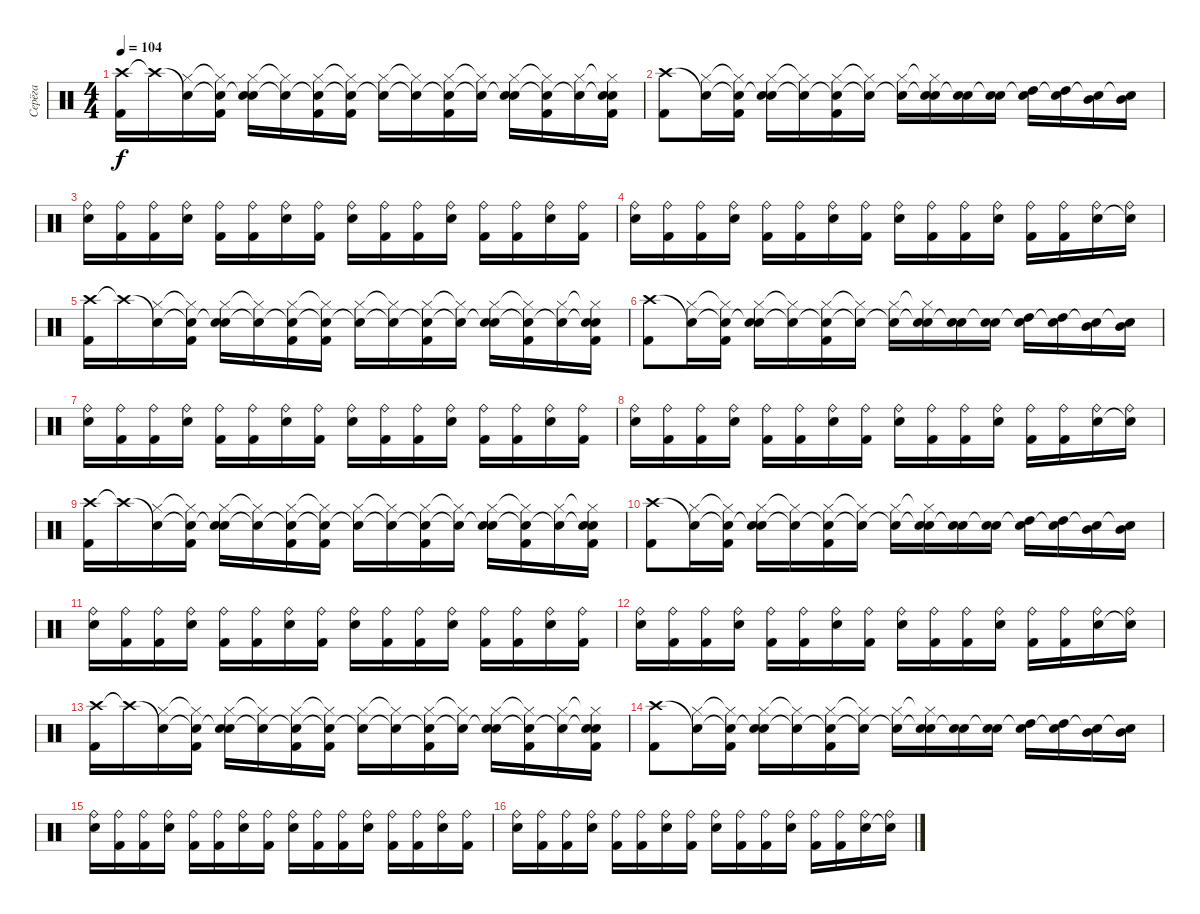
\track ("Серёга" "Серёга") {instrument percussion}
\staff {score}
\articulation defaults
\ts (4 4)
\tempo 104
\clef neutral
\ks c
("Crash high (hit)" "Kick (hit) 2").16{dy f} "Crash high (hit)"{t}.16 ("Snare (hit)"{t} "Hi-Hat (closed)").16 ("Snare (hit)"{t} "Hi-Hat (closed)"{t} "Kick (hit) 2").16 ("Snare (hit)"{t} "Hi-Hat (closed)" "Electric Snare (hit)").16 ("Snare (hit)"{t} "Hi-Hat (closed)"{t}).16 ("Snare (hit)"{t} "Hi-Hat (closed)" "Kick (hit) 2").16 ("Snare (hit)"{t} "Hi-Hat (closed)"{t} "Kick (hit) 2").16 ("Snare (hit)"{t} "Hi-Hat (closed)").16 ("Snare (hit)"{t} "Hi-Hat (closed)"{t}).16 ("Snare (hit)"{t} "Hi-Hat (closed)" "Kick (hit) 2").16 ("Snare (hit)"{t} "Hi-Hat (closed)"{t}).16 ("Snare (hit)"{t} "Hi-Hat (closed)" "Electric Snare (hit)").16 ("Snare (hit)"{t} "Hi-Hat (closed)"{t} "Kick (hit) 2").16 ("Snare (hit)"{t} "Hi-Hat (closed)").16 ("Snare (hit)"{t} "Hi-Hat (closed)"{t} "Kick (hit) 2" "Electric Snare (hit)").16 |
("Crash high (hit)" "Kick (hit) 2").8 ("Snare (hit)"{t} "Hi-Hat (closed)").16 ("Snare (hit)"{t} "Hi-Hat (closed)"{t} "Kick (hit) 2").16 ("Snare (hit)"{t} "Hi-Hat (closed)" "Electric Snare (hit)").16 ("Snare (hit)"{t} "Hi-Hat (closed)"{t}).16 ("Snare (hit)"{t} "Hi-Hat (closed)" "Kick (hit) 2").16 ("Snare (hit)"{t} "Hi-Hat (closed)"{t}).16 ("Snare (hit)"{t} "Hi-Hat (closed)").16 ("Snare (hit)"{t} "Hi-Hat (closed)"{t} "Electric Snare (hit)").16 ("Snare (hit)"{t} "Electric Snare (hit)").16 ("Snare (hit)"{t} "Electric Snare (hit)").16 ("Snare (hit)"{t} "High Tom (hit)").16 ("Snare (hit)"{t} "High Tom (hit)").16 ("Snare (hit)"{t} "Mid Tom (hit)").16 ("Snare (hit)"{t} "Mid Tom (hit)").16 |
("Ride (bell)" "Electric Snare (hit)").16 ("Ride (bell)" "Kick (hit) 2").16 ("Ride (bell)" "Kick (hit) 2").16 ("Ride (bell)" "Electric Snare (hit)").16 ("Ride (bell)" "Kick (hit) 2").16 ("Ride (bell)" "Kick (hit) 2").16 ("Ride (bell)" "Electric Snare (hit)").16 ("Ride (bell)" "Kick (hit) 2").16 ("Ride (bell)" "Electric Snare (hit)").16 ("Ride (bell)" "Kick (hit) 2").16 ("Ride (bell)" "Kick (hit) 2").16 ("Ride (bell)" "Electric Snare (hit)").16 ("Ride (bell)" "Kick (hit) 2").16 ("Ride (bell)" "Kick (hit) 2").16 ("Ride (bell)" "Electric Snare (hit)").16 ("Ride (bell)" "Kick (hit) 2").16 |
("Ride (bell)" "Electric Snare (hit)").16 ("Ride (bell)" "Kick (hit) 2").16 ("Ride (bell)" "Kick (hit) 2").16 ("Ride (bell)" "Electric Snare (hit)").16 ("Ride (bell)" "Kick (hit) 2").16 ("Ride (bell)" "Kick (hit) 2").16 ("Ride (bell)" "Electric Snare (hit)").16 ("Ride (bell)" "Kick (hit) 2").16 ("Ride (bell)" "Electric Snare (hit)").16 ("Ride (bell)" "Kick (hit) 2").16 ("Ride (bell)" "Kick (hit) 2").16 ("Ride (bell)" "Electric Snare (hit)").16 ("Ride (bell)" "Kick (hit) 2").16 ("Ride (bell)" "Kick (hit) 2").16 ("Ride (bell)" "Electric Snare (hit)").16 ("Ride (bell)" "Snare (hit)"{t}).16 |
("Crash high (hit)" "Kick (hit) 2").16 "Crash high (hit)"{t}.16 ("Snare (hit)"{t} "Hi-Hat (closed)").16 ("Snare (hit)"{t} "Hi-Hat (closed)"{t} "Kick (hit) 2").16 ("Snare (hit)"{t} "Hi-Hat (closed)" "Electric Snare (hit)").16 ("Snare (hit)"{t} "Hi-Hat (closed)"{t}).16 ("Snare (hit)"{t} "Hi-Hat (closed)" "Kick (hit) 2").16 ("Snare (hit)"{t} "Hi-Hat (closed)"{t} "Kick (hit) 2").16 ("Snare (hit)"{t} "Hi-Hat (closed)").16 ("Snare (hit)"{t} "Hi-Hat (closed)"{t}).16 ("Snare (hit)"{t} "Hi-Hat (closed)" "Kick (hit) 2").16 ("Snare (hit)"{t} "Hi-Hat (closed)"{t}).16 ("Snare (hit)"{t} "Hi-Hat (closed)" "Electric Snare (hit)").16 ("Snare (hit)"{t} "Hi-Hat (closed)"{t} "Kick (hit) 2").16 ("Snare (hit)"{t} "Hi-Hat (closed)").16 ("Snare (hit)"{t} "Hi-Hat (closed)"{t} "Kick (hit) 2" "Electric Snare (hit)").16 |
("Crash high (hit)" "Kick (hit) 2").8 ("Snare (hit)"{t} "Hi-Hat (closed)").16 ("Snare (hit)"{t} "Hi-Hat (closed)"{t} "Kick (hit) 2").16 ("Snare (hit)"{t} "Hi-Hat (closed)" "Electric Snare (hit)").16 ("Snare (hit)"{t} "Hi-Hat (closed)"{t}).16 ("Snare (hit)"{t} "Hi-Hat (closed)" "Kick (hit) 2").16 ("Snare (hit)"{t} "Hi-Hat (closed)"{t}).16 ("Snare (hit)"{t} "Hi-Hat (closed)").16 ("Snare (hit)"{t} "Hi-Hat (closed)"{t} "Electric Snare (hit)").16 ("Snare (hit)"{t} "Electric Snare (hit)").16 ("Snare (hit)"{t} "Electric Snare (hit)").16 ("Snare (hit)"{t} "High Tom (hit)").16 ("Snare (hit)"{t} "High Tom (hit)").16 ("Snare (hit)"{t} "Mid Tom (hit)").16 ("Snare (hit)"{t} "Mid Tom (hit)").16 |
("Ride (bell)" "Electric Snare (hit)").16 ("Ride (bell)" "Kick (hit) 2").16 ("Ride (bell)" "Kick (hit) 2").16 ("Ride (bell)" "Electric Snare (hit)").16 ("Ride (bell)" "Kick (hit) 2").16 ("Ride (bell)" "Kick (hit) 2").16 ("Ride (bell)" "Electric Snare (hit)").16 ("Ride (bell)" "Kick (hit) 2").16 ("Ride (bell)" "Electric Snare (hit)").16 ("Ride (bell)" "Kick (hit) 2").16 ("Ride (bell)" "Kick (hit) 2").16 ("Ride (bell)" "Electric Snare (hit)").16 ("Ride (bell)" "Kick (hit) 2").16 ("Ride (bell)" "Kick (hit) 2").16 ("Ride (bell)" "Electric Snare (hit)").16 ("Ride (bell)" "Kick (hit) 2").16 |
("Ride (bell)" "Electric Snare (hit)").16 ("Ride (bell)" "Kick (hit) 2").16 ("Ride (bell)" "Kick (hit) 2").16 ("Ride (bell)" "Electric Snare (hit)").16 ("Ride (bell)" "Kick (hit) 2").16 ("Ride (bell)" "Kick (hit) 2").16 ("Ride (bell)" "Electric Snare (hit)").16 ("Ride (bell)" "Kick (hit) 2").16 ("Ride (bell)" "Electric Snare (hit)").16 ("Ride (bell)" "Kick (hit) 2").16 ("Ride (bell)" "Kick (hit) 2").16 ("Ride (bell)" "Electric Snare (hit)").16 ("Ride (bell)" "Kick (hit) 2").16 ("Ride (bell)" "Kick (hit) 2").16 ("Ride (bell)" "Electric Snare (hit)").16 ("Ride (bell)" "Snare (hit)"{t}).16 |
("Crash high (hit)" "Kick (hit) 2").16 "Crash high (hit)"{t}.16 ("Snare (hit)"{t} "Hi-Hat (closed)").16 ("Snare (hit)"{t} "Hi-Hat (closed)"{t} "Kick (hit) 2").16 ("Snare (hit)"{t} "Hi-Hat (closed)" "Electric Snare (hit)").16 ("Snare (hit)"{t} "Hi-Hat (closed)"{t}).16 ("Snare (hit)"{t} "Hi-Hat (closed)" "Kick (hit) 2").16 ("Snare (hit)"{t} "Hi-Hat (closed)"{t} "Kick (hit) 2").16 ("Snare (hit)"{t} "Hi-Hat (closed)").16 ("Snare (hit)"{t} "Hi-Hat (closed)"{t}).16 ("Snare (hit)"{t} "Hi-Hat (closed)" "Kick (hit) 2").16 ("Snare (hit)"{t} "Hi-Hat (closed)"{t}).16 ("Snare (hit)"{t} "Hi-Hat (closed)" "Electric Snare (hit)").16 ("Snare (hit)"{t} "Hi-Hat (closed)"{t} "Kick (hit) 2").16 ("Snare (hit)"{t} "Hi-Hat (closed)").16 ("Snare (hit)"{t} "Hi-Hat (closed)"{t} "Kick (hit) 2" "Electric Snare (hit)").16 |
("Crash high (hit)" "Kick (hit) 2").8 ("Snare (hit)"{t} "Hi-Hat (closed)").16 ("Snare (hit)"{t} "Hi-Hat (closed)"{t} "Kick (hit) 2").16 ("Snare (hit)"{t} "Hi-Hat (closed)" "Electric Snare (hit)").16 ("Snare (hit)"{t} "Hi-Hat (closed)"{t}).16 ("Snare (hit)"{t} "Hi-Hat (closed)" "Kick (hit) 2").16 ("Snare (hit)"{t} "Hi-Hat (closed)"{t}).16 ("Snare (hit)"{t} "Hi-Hat (closed)").16 ("Snare (hit)"{t} "Hi-Hat (closed)"{t} "Electric Snare (hit)").16 ("Snare (hit)"{t} "Electric Snare (hit)").16 ("Snare (hit)"{t} "Electric Snare (hit)").16 ("Snare (hit)"{t} "High Tom (hit)").16 ("Snare (hit)"{t} "High Tom (hit)").16 ("Snare (hit)"{t} "Mid Tom (hit)").16 ("Snare (hit)"{t} "Mid Tom (hit)").16 |
("Ride (bell)" "Electric Snare (hit)").16 ("Ride (bell)" "Kick (hit) 2").16 ("Ride (bell)" "Kick (hit) 2").16 ("Ride (bell)" "Electric Snare (hit)").16 ("Ride (bell)" "Kick (hit) 2").16 ("Ride (bell)" "Kick (hit) 2").16 ("Ride (bell)" "Electric Snare (hit)").16 ("Ride (bell)" "Kick (hit) 2").16 ("Ride (bell)" "Electric Snare (hit)").16 ("Ride (bell)" "Kick (hit) 2").16 ("Ride (bell)" "Kick (hit) 2").16 ("Ride (bell)" "Electric Snare (hit)").16 ("Ride (bell)" "Kick (hit) 2").16 ("Ride (bell)" "Kick (hit) 2").16 ("Ride (bell)" "Electric Snare (hit)").16 ("Ride (bell)" "Kick (hit) 2").16 |
("Ride (bell)" "Electric Snare (hit)").16 ("Ride (bell)" "Kick (hit) 2").16 ("Ride (bell)" "Kick (hit) 2").16 ("Ride (bell)" "Electric Snare (hit)").16 ("Ride (bell)" "Kick (hit) 2").16 ("Ride (bell)" "Kick (hit) 2").16 ("Ride (bell)" "Electric Snare (hit)").16 ("Ride (bell)" "Kick (hit) 2").16 ("Ride (bell)" "Electric Snare (hit)").16 ("Ride (bell)" "Kick (hit) 2").16 ("Ride (bell)" "Kick (hit) 2").16 ("Ride (bell)" "Electric Snare (hit)").16 ("Ride (bell)" "Kick (hit) 2").16 ("Ride (bell)" "Kick (hit) 2").16 ("Ride (bell)" "Electric Snare (hit)").16 ("Ride (bell)" "Snare (hit)"{t}).16 |
("Crash high (hit)" "Kick (hit) 2").16 "Crash high (hit)"{t}.16 ("Snare (hit)"{t} "Hi-Hat (closed)").16 ("Snare (hit)"{t} "Hi-Hat (closed)"{t} "Kick (hit) 2").16 ("Snare (hit)"{t} "Hi-Hat (closed)" "Electric Snare (hit)").16 ("Snare (hit)"{t} "Hi-Hat (closed)"{t}).16 ("Snare (hit)"{t} "Hi-Hat (closed)" "Kick (hit) 2").16 ("Snare (hit)"{t} "Hi-Hat (closed)"{t} "Kick (hit) 2").16 ("Snare (hit)"{t} "Hi-Hat (closed)").16 ("Snare (hit)"{t} "Hi-Hat (closed)"{t}).16 ("Snare (hit)"{t} "Hi-Hat (closed)" "Kick (hit) 2").16 ("Snare (hit)"{t} "Hi-Hat (closed)"{t}).16 ("Snare (hit)"{t} "Hi-Hat (closed)" "Electric Snare (hit)").16 ("Snare (hit)"{t} "Hi-Hat (closed)"{t} "Kick (hit) 2").16 ("Snare (hit)"{t} "Hi-Hat (closed)").16 ("Snare (hit)"{t} "Hi-Hat (closed)"{t} "Kick (hit) 2" "Electric Snare (hit)").16 |
("Crash high (hit)" "Kick (hit) 2").8 ("Snare (hit)"{t} "Hi-Hat (closed)").16 ("Snare (hit)"{t} "Hi-Hat (closed)"{t} "Kick (hit) 2").16 ("Snare (hit)"{t} "Hi-Hat (closed)" "Electric Snare (hit)").16 ("Snare (hit)"{t} "Hi-Hat (closed)"{t}).16 ("Snare (hit)"{t} "Hi-Hat (closed)" "Kick (hit) 2").16 ("Snare (hit)"{t} "Hi-Hat (closed)"{t}).16 ("Snare (hit)"{t} "Hi-Hat (closed)").16 ("Snare (hit)"{t} "Hi-Hat (closed)"{t} "Electric Snare (hit)").16 ("Snare (hit)"{t} "Electric Snare (hit)").16 ("Snare (hit)"{t} "Electric Snare (hit)").16 ("Snare (hit)"{t} "High Tom (hit)").16 ("Snare (hit)"{t} "High Tom (hit)").16 ("Snare (hit)"{t} "Mid Tom (hit)").16 ("Snare (hit)"{t} "Mid Tom (hit)").16 |
("Ride (bell)" "Electric Snare (hit)").16 ("Ride (bell)" "Kick (hit) 2").16 ("Ride (bell)" "Kick (hit) 2").16 ("Ride (bell)" "Electric Snare (hit)").16 ("Ride (bell)" "Kick (hit) 2").16 ("Ride (bell)" "Kick (hit) 2").16 ("Ride (bell)" "Electric Snare (hit)").16 ("Ride (bell)" "Kick (hit) 2").16 ("Ride (bell)" "Electric Snare (hit)").16 ("Ride (bell)" "Kick (hit) 2").16 ("Ride (bell)" "Kick (hit) 2").16 ("Ride (bell)" "Electric Snare (hit)").16 ("Ride (bell)" "Kick (hit) 2").16 ("Ride (bell)" "Kick (hit) 2").16 ("Ride (bell)" "Electric Snare (hit)").16 ("Ride (bell)" "Kick (hit) 2").16 |
("Ride (bell)" "Electric Snare (hit)").16 ("Ride (bell)" "Kick (hit) 2").16 ("Ride (bell)" "Kick (hit) 2").16 ("Ride (bell)" "Electric Snare (hit)").16 ("Ride (bell)" "Kick (hit) 2").16 ("Ride (bell)" "Kick (hit) 2").16 ("Ride (bell)" "Electric Snare (hit)").16 ("Ride (bell)" "Kick (hit) 2").16 ("Ride (bell)" "Electric Snare (hit)").16 ("Ride (bell)" "Kick (hit) 2").16 ("Ride (bell)" "Kick (hit) 2").16 ("Ride (bell)" "Electric Snare (hit)").16 ("Ride (bell)" "Kick (hit) 2").16 ("Ride (bell)" "Kick (hit) 2").16 ("Ride (bell)" "Electric Snare (hit)").16 ("Ride (bell)" "Snare (hit)"{t}).16
